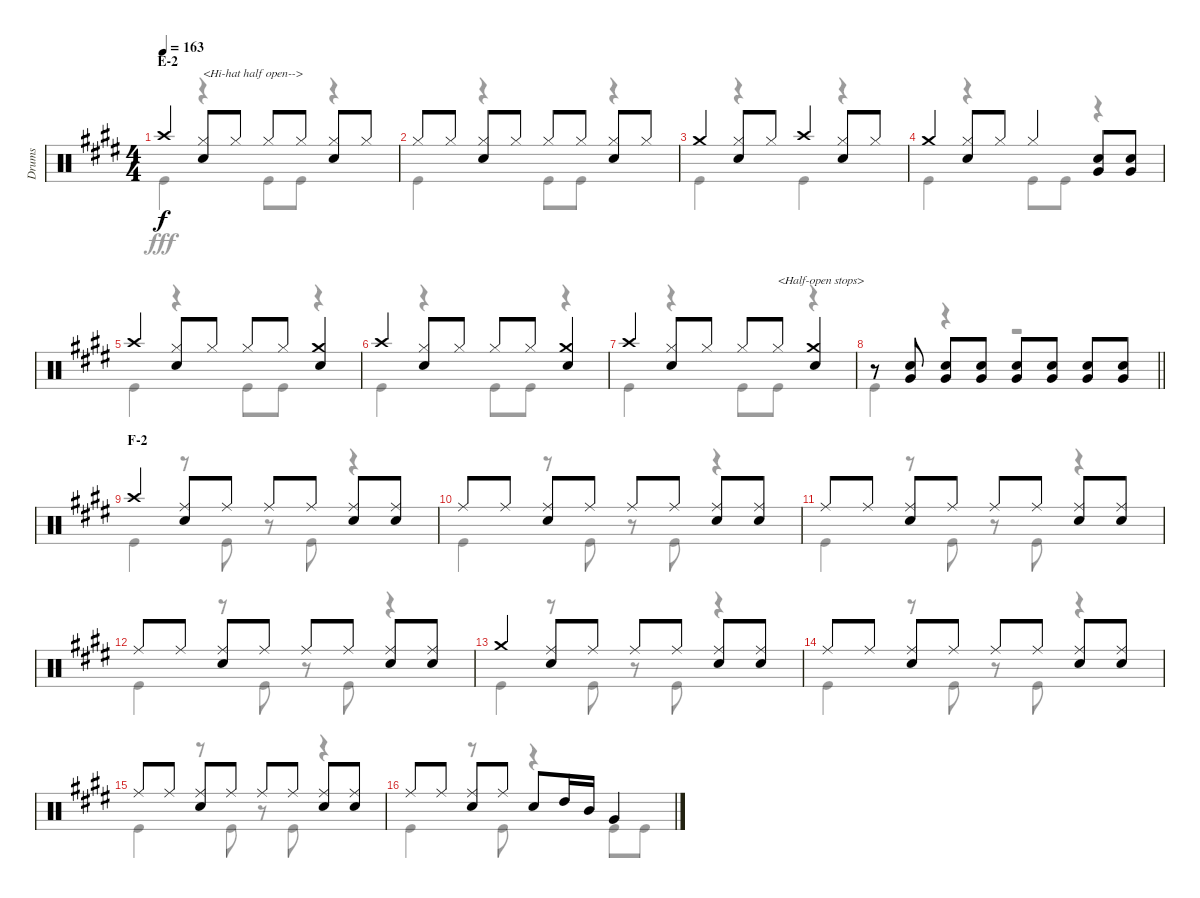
\track ("Drums" "Drums") {instrument percussion}
\staff {score}
\articulation defaults
\voice
\ts (4 4)
\section ("" "E-2")
\tempo 163
\clef neutral
\ks e "Crash high (hit)".4{dy f}
("Hi-Hat (closed)" "Snare (hit) 2").8{txt "<Hi-hat half open-->"} "Hi-Hat (closed)".8 "Hi-Hat (closed)".8 "Hi-Hat (closed)".8 ("Hi-Hat (closed)" "Snare (hit) 2").8 "Hi-Hat (closed)".8 |
"Hi-Hat (closed)".8 "Hi-Hat (closed)".8 ("Hi-Hat (closed)" "Snare (hit) 2").8 "Hi-Hat (closed)".8 "Hi-Hat (closed)".8 "Hi-Hat (closed)".8 ("Hi-Hat (closed)" "Snare (hit) 2").8 "Hi-Hat (closed)".8 |
"Crash medium (hit)".4 ("Hi-Hat (closed)" "Snare (hit) 2").8 "Hi-Hat (closed)".8 "Crash high (hit)".4 ("Hi-Hat (closed)" "Snare (hit) 2").8 "Hi-Hat (closed)".8 |
"Crash medium (hit)".4 ("Hi-Hat (closed)" "Snare (hit) 2").8 "Hi-Hat (closed)".8 "Hi-Hat (closed)".4 ("Snare (hit) 2" "Very Low Tom (hit)").8 ("Snare (hit) 2" "Very Low Tom (hit)").8 |
"Crash high (hit)".4 ("Hi-Hat (closed)" "Snare (hit) 2").8 "Hi-Hat (closed)".8 "Hi-Hat (closed)".8 "Hi-Hat (closed)".8 ("Crash medium (hit)" "Snare (hit) 2").4 |
"Crash high (hit)".4 ("Hi-Hat (closed)" "Snare (hit) 2").8 "Hi-Hat (closed)".8 "Hi-Hat (closed)".8 "Hi-Hat (closed)".8 ("Crash medium (hit)" "Snare (hit) 2").4 |
"Crash high (hit)".4 ("Hi-Hat (closed)" "Snare (hit) 2").8 "Hi-Hat (closed)".8 "Hi-Hat (closed)".8 "Hi-Hat (closed)".8{txt "<Half-open stops>"} ("Crash medium (hit)" "Snare (hit) 2").4 |
\barLineRight lightlight
r.8 ("Snare (hit) 2" "Very Low Tom (hit)").8 ("Snare (hit) 2" "Very Low Tom (hit)").8 ("Snare (hit) 2" "Very Low Tom (hit)").8 ("Snare (hit) 2" "Very Low Tom (hit)").8 ("Snare (hit) 2" "Very Low Tom (hit)").8 ("Snare (hit) 2" "Very Low Tom (hit)").8 ("Snare (hit) 2" "Very Low Tom (hit)").8 |
\section ("" "F-2")
"Crash high (hit)".4 ("Ride (middle)" "Snare (hit) 2").8 "Ride (middle)".8 "Ride (middle)".8 "Ride (middle)".8 ("Ride (middle)" "Snare (hit) 2").8 ("Ride (middle)" "Snare (hit) 2").8 |
"Ride (middle)".8 "Ride (middle)".8 ("Ride (middle)" "Snare (hit) 2").8 "Ride (middle)".8 "Ride (middle)".8 "Ride (middle)".8 ("Ride (middle)" "Snare (hit) 2").8 ("Ride (middle)" "Snare (hit) 2").8 |
"Ride (middle)".8 "Ride (middle)".8 ("Ride (middle)" "Snare (hit) 2").8 "Ride (middle)".8 "Ride (middle)".8 "Ride (middle)".8 ("Ride (middle)" "Snare (hit) 2").8 ("Ride (middle)" "Snare (hit) 2").8 |
"Ride (middle)".8 "Ride (middle)".8 ("Ride (middle)" "Snare (hit) 2").8 "Ride (middle)".8 "Ride (middle)".8 "Ride (middle)".8 ("Ride (middle)" "Snare (hit) 2").8 ("Ride (middle)" "Snare (hit) 2").8 |
"Crash medium (hit)".4 ("Ride (middle)" "Snare (hit) 2").8 "Ride (middle)".8 "Ride (middle)".8 "Ride (middle)".8 ("Ride (middle)" "Snare (hit) 2").8 ("Ride (middle)" "Snare (hit) 2").8 |
"Ride (middle)".8 "Ride (middle)".8 ("Ride (middle)" "Snare (hit) 2").8 "Ride (middle)".8 "Ride (middle)".8 "Ride (middle)".8 ("Ride (middle)" "Snare (hit) 2").8 ("Ride (middle)" "Snare (hit) 2").8 |
"Ride (middle)".8 "Ride (middle)".8 ("Ride (middle)" "Snare (hit) 2").8 "Ride (middle)".8 "Ride (middle)".8 "Ride (middle)".8 ("Ride (middle)" "Snare (hit) 2").8 ("Ride (middle)" "Snare (hit) 2").8 |
"Ride (middle)".8 "Ride (middle)".8 ("Ride (middle)" "Snare (hit) 2").8 "Ride (middle)".8 "Snare (hit) 2".8 "High Tom (hit)".16 "Mid Tom (hit)".16 "Very Low Tom (hit)".4
\voice
\clef neutral
\ottava regular
\simile none
\ks e "Kick (hit)".4{dy fff}
r.4 "Kick (hit)".8 "Kick (hit)".8 r.4 |
"Kick (hit)".4 r.4 "Kick (hit)".8 "Kick (hit)".8 r.4 |
"Kick (hit)".4 r.4 "Kick (hit)".4 r.4 |
"Kick (hit)".4 r.4 "Kick (hit)".8 "Kick (hit)".8 r.4 |
"Kick (hit)".4 r.4 "Kick (hit)".8 "Kick (hit)".8 r.4 |
"Kick (hit)".4 r.4 "Kick (hit)".8 "Kick (hit)".8 r.4 |
"Kick (hit)".4 r.4 "Kick (hit)".8 "Kick (hit)".8 r.4 |
\barLineRight lightlight "Kick (hit)".4
r.4 r.2 |
"Kick (hit)".4 r.8 "Kick (hit)".8 r.8 "Kick (hit)".8 r.4 |
"Kick (hit)".4 r.8 "Kick (hit)".8 r.8 "Kick (hit)".8 r.4 |
"Kick (hit)".4 r.8 "Kick (hit)".8 r.8 "Kick (hit)".8 r.4 |
"Kick (hit)".4 r.8 "Kick (hit)".8 r.8 "Kick (hit)".8 r.4 |
"Kick (hit)".4 r.8 "Kick (hit)".8 r.8 "Kick (hit)".8 r.4 |
"Kick (hit)".4 r.8 "Kick (hit)".8 r.8 "Kick (hit)".8 r.4 |
"Kick (hit)".4 r.8 "Kick (hit)".8 r.8 "Kick (hit)".8 r.4 |
"Kick (hit)".4 r.8 "Kick (hit)".8 r.4 "Kick (hit)".8 "Kick (hit)".8
